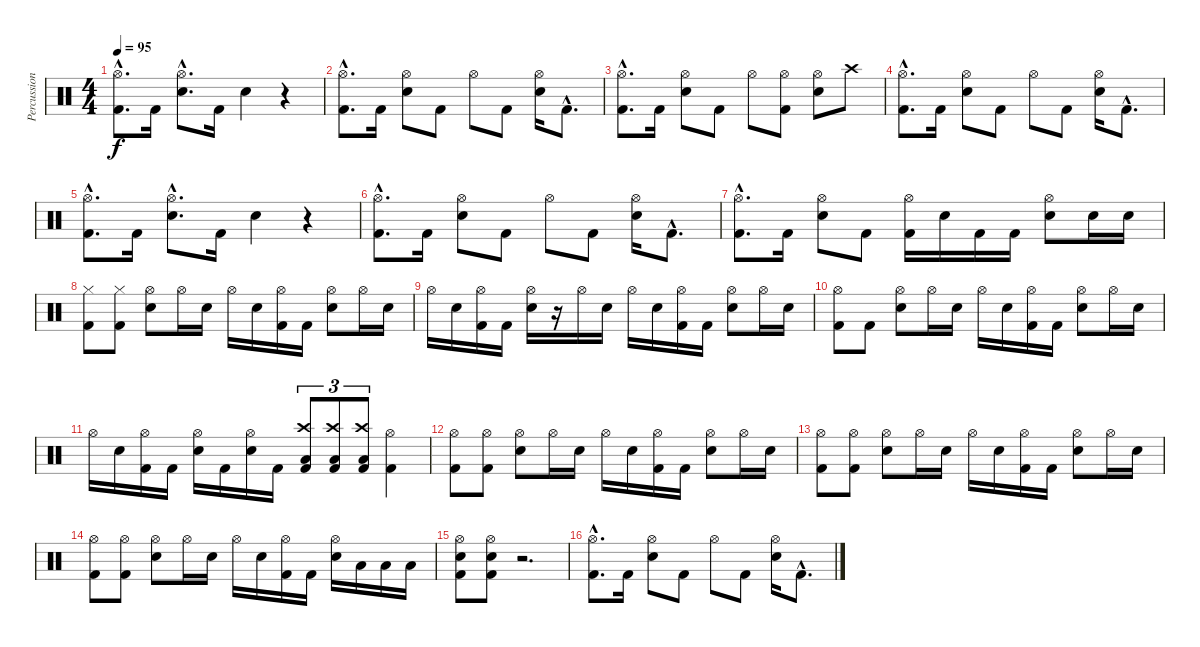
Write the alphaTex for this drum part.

\track ("Percussioni" "Percussion") {instrument percussion}
\staff {score}
\articulation defaults
\ts (4 4)
\tempo 95
\clef neutral
\ks c
("Hi-Hat (open)"{hac} "Kick (hit) 2"{hac}).8{d dy f} "Kick (hit) 2".16 ("Hi-Hat (open)"{hac} "Snare (hit) 2"{hac}).8{d} "Kick (hit) 2".16 "Snare (hit) 2".4 r.4 |
("Hi-Hat (open)"{hac} "Kick (hit) 2"{hac}).8{d} "Kick (hit) 2".16 ("Hi-Hat (open)" "Snare (hit) 2").8 "Kick (hit) 2".8 "Hi-Hat (open)".8 "Kick (hit) 2".8 ("Hi-Hat (open)" "Snare (hit) 2").16 "Kick (hit) 2"{hac}.8{d} |
("Hi-Hat (open)"{hac} "Kick (hit) 2"{hac}).8{d} "Kick (hit) 2".16 ("Hi-Hat (open)" "Snare (hit) 2").8 "Kick (hit) 2".8 "Hi-Hat (open)".8 ("Hi-Hat (open)" "Kick (hit) 2").8 ("Hi-Hat (open)" "Snare (hit) 2").8 "Crash high (hit)".8 |
("Hi-Hat (open)"{hac} "Kick (hit) 2"{hac}).8{d} "Kick (hit) 2".16 ("Hi-Hat (open)" "Snare (hit) 2").8 "Kick (hit) 2".8 "Hi-Hat (open)".8 "Kick (hit) 2".8 ("Hi-Hat (open)" "Snare (hit) 2").16 "Kick (hit) 2"{hac}.8{d} |
("Hi-Hat (open)"{hac} "Kick (hit) 2"{hac}).8{d} "Kick (hit) 2".16 ("Hi-Hat (open)"{hac} "Snare (hit) 2"{hac}).8{d} "Kick (hit) 2".16 "Snare (hit) 2".4 r.4 |
("Hi-Hat (open)"{hac} "Kick (hit) 2"{hac}).8{d} "Kick (hit) 2".16 ("Hi-Hat (open)" "Snare (hit) 2").8 "Kick (hit) 2".8 "Hi-Hat (open)".8 "Kick (hit) 2".8 ("Hi-Hat (open)" "Snare (hit) 2").16 "Kick (hit) 2"{hac}.8{d} |
("Hi-Hat (open)"{hac} "Kick (hit) 2"{hac}).8{d} "Kick (hit) 2".16 ("Hi-Hat (open)" "Snare (hit) 2").8 "Kick (hit) 2".8 ("Hi-Hat (open)" "Kick (hit) 2").16 "Snare (hit) 2".16 "Kick (hit) 2".16 "Kick (hit) 2".16 ("Hi-Hat (open)" "Snare (hit) 2").8 "Snare (hit) 2".16 "Snare (hit) 2".16 |
("Hi-Hat (closed)" "Kick (hit) 2").8 ("Hi-Hat (closed)" "Kick (hit) 2").8 ("Hi-Hat (open)" "Snare (hit) 2").8 "Hi-Hat (open)".16 "Snare (hit) 2".16 "Hi-Hat (open)".16 "Snare (hit) 2".16 ("Hi-Hat (open)" "Kick (hit) 2").16 "Kick (hit) 2".16 ("Hi-Hat (open)" "Snare (hit) 2").8 "Hi-Hat (open)".16 "Snare (hit) 2".16 |
"Hi-Hat (open)".16 "Snare (hit) 2".16 ("Hi-Hat (open)" "Kick (hit) 2").16 "Kick (hit) 2".16 ("Hi-Hat (open)" "Snare (hit) 2").16 r.16 "Hi-Hat (open)".16 "Snare (hit) 2".16 "Hi-Hat (open)".16 "Snare (hit) 2".16 ("Hi-Hat (open)" "Kick (hit) 2").16 "Kick (hit) 2".16 ("Hi-Hat (open)" "Snare (hit) 2").8 "Hi-Hat (open)".16 "Snare (hit) 2".16 |
("Hi-Hat (open)" "Kick (hit) 2").8 "Kick (hit) 2".8 ("Hi-Hat (open)" "Snare (hit) 2").8 "Hi-Hat (open)".16 "Snare (hit) 2".16 "Hi-Hat (open)".16 "Snare (hit) 2".16 ("Hi-Hat (open)" "Kick (hit) 2").16 "Kick (hit) 2".16 ("Hi-Hat (open)" "Snare (hit) 2").8 "Hi-Hat (open)".16 "Snare (hit) 2".16 |
"Hi-Hat (open)".16 "Snare (hit) 2".16 ("Hi-Hat (open)" "Kick (hit) 2").16 "Kick (hit) 2".16 ("Hi-Hat (open)" "Snare (hit) 2").16 "Kick (hit) 2".16 ("Hi-Hat (open)" "Snare (hit) 2").16 "Kick (hit) 2".16 ("Crash high (hit)" "Low Floor Tom (hit)" "Kick (hit) 2").8{tu (3 2)} ("Crash high (hit)" "Low Floor Tom (hit)" "Kick (hit) 2").8{tu (3 2)} ("Crash high (hit)" "Low Floor Tom (hit)" "Kick (hit) 2").8{tu (3 2)} ("Hi-Hat (open)" "Kick (hit) 2").4 |
("Hi-Hat (open)" "Kick (hit) 2").8 ("Hi-Hat (open)" "Kick (hit) 2").8 ("Hi-Hat (open)" "Snare (hit) 2").8 "Hi-Hat (open)".16 "Snare (hit) 2".16 "Hi-Hat (open)".16 "Snare (hit) 2".16 ("Hi-Hat (open)" "Kick (hit) 2").16 "Kick (hit) 2".16 ("Hi-Hat (open)" "Snare (hit) 2").8 "Hi-Hat (open)".16 "Snare (hit) 2".16 |
("Hi-Hat (open)" "Kick (hit) 2").8 ("Hi-Hat (open)" "Kick (hit) 2").8 ("Hi-Hat (open)" "Snare (hit) 2").8 "Hi-Hat (open)".16 "Snare (hit) 2".16 "Hi-Hat (open)".16 "Snare (hit) 2".16 ("Hi-Hat (open)" "Kick (hit) 2").16 "Kick (hit) 2".16 ("Hi-Hat (open)" "Snare (hit) 2").8 "Hi-Hat (open)".16 "Snare (hit) 2".16 |
("Hi-Hat (open)" "Kick (hit) 2").8 ("Hi-Hat (open)" "Kick (hit) 2").8 ("Hi-Hat (open)" "Snare (hit) 2").8 "Hi-Hat (open)".16 "Snare (hit) 2".16 "Hi-Hat (open)".16 "Snare (hit) 2".16 ("Hi-Hat (open)" "Kick (hit) 2").16 "Kick (hit) 2".16 ("Hi-Hat (open)" "Snare (hit) 2").16 "Low Floor Tom (hit)".16 "Low Floor Tom (hit)".16 "Low Floor Tom (hit)".16 |
("Hi-Hat (open)" "Snare (hit) 2" "Kick (hit) 2").8 ("Hi-Hat (open)" "Snare (hit) 2" "Kick (hit) 2").8 r.2{d} |
("Hi-Hat (open)"{hac} "Kick (hit) 2"{hac}).8{d} "Kick (hit) 2".16 ("Hi-Hat (open)" "Snare (hit) 2").8 "Kick (hit) 2".8 "Hi-Hat (open)".8 "Kick (hit) 2".8 ("Hi-Hat (open)" "Snare (hit) 2").16 "Kick (hit) 2"{hac}.8{d}
